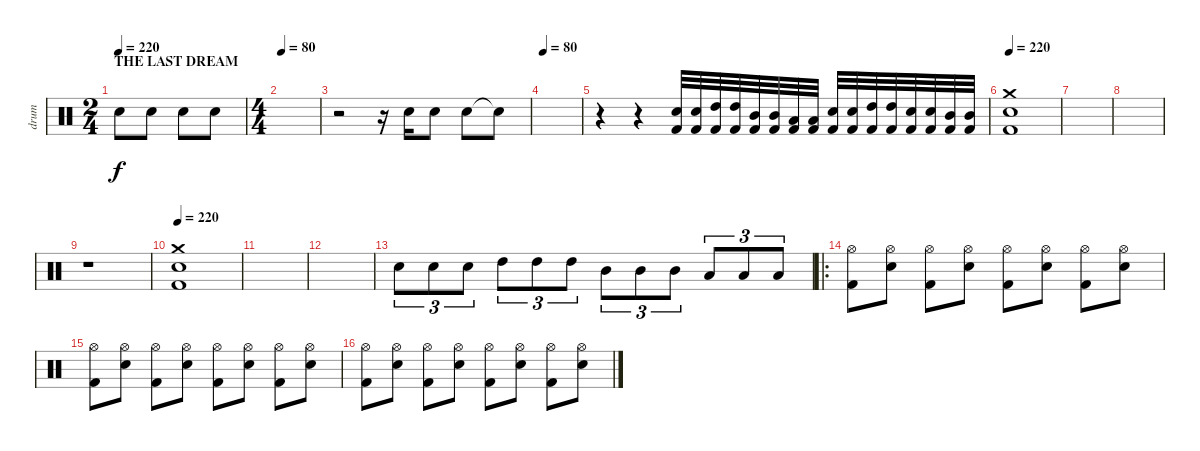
\track ("drum" "drum") {instrument percussion}
\staff {score}
\articulation defaults
\ts (2 4)
\section ("" "THE LAST DREAM")
\tempo 220
\tempo 80
\tempo 220
\clef neutral
\ks c "Electric Snare (hit)".8{dy f} "Electric Snare (hit)".8 "Electric Snare (hit)".8 "Electric Snare (hit)".8
|
\ts (4 4)
\tempo 80
|
r.2 r.16 "Electric Snare (hit)".16 "Electric Snare (hit)".8 "Electric Snare (hit)".8 "Snare (hit)"{t}.8 |
\tempo 80
|
r.4 r.4 ("Electric Snare (hit)" "Kick (hit) 2").32 ("Electric Snare (hit)" "Kick (hit) 2").32 ("High Tom (hit)" "Kick (hit) 2").32 ("High Tom (hit)" "Kick (hit) 2").32 ("Mid Tom (hit)" "Kick (hit) 2").32 ("Mid Tom (hit)" "Kick (hit) 2").32 ("Low Tom (hit)" "Kick (hit) 2").32 ("Low Tom (hit)" "Kick (hit) 2").32 ("Electric Snare (hit)" "Kick (hit) 2").32 ("Electric Snare (hit)" "Kick (hit) 2").32 ("High Tom (hit)" "Kick (hit) 2").32 ("High Tom (hit)" "Kick (hit) 2").32 ("Electric Snare (hit)" "Kick (hit) 2").32 ("Electric Snare (hit)" "Kick (hit) 2").32 ("Mid Tom (hit)" "Kick (hit) 2").32 ("Mid Tom (hit)" "Kick (hit) 2").32 |
\tempo 220
("Crash medium (hit)" "Electric Snare (hit)" "Kick (hit) 2").1 |
|
|
r.1 |
\tempo 220
("Crash medium (hit)" "Electric Snare (hit)" "Kick (hit) 2").1 |
|
|
"Electric Snare (hit)".8{tu (3 2)} "Electric Snare (hit)".8{tu (3 2)} "Electric Snare (hit)".8{tu (3 2)} "High Tom (hit)".8{tu (3 2)} "High Tom (hit)".8{tu (3 2)} "High Tom (hit)".8{tu (3 2)} "Mid Tom (hit)".8{tu (3 2)} "Mid Tom (hit)".8{tu (3 2)} "Mid Tom (hit)".8{tu (3 2)} "Low Tom (hit)".8{tu (3 2)} "Low Tom (hit)".8{tu (3 2)} "Low Tom (hit)".8{tu (3 2)} |
\ro
("Hi-Hat (open)" "Kick (hit) 2").8 ("Hi-Hat (open)" "Electric Snare (hit)").8 ("Hi-Hat (open)" "Kick (hit) 2").8 ("Hi-Hat (open)" "Electric Snare (hit)").8 ("Hi-Hat (open)" "Kick (hit) 2").8 ("Hi-Hat (open)" "Electric Snare (hit)").8 ("Hi-Hat (open)" "Kick (hit) 2").8 ("Hi-Hat (open)" "Electric Snare (hit)").8 |
("Hi-Hat (open)" "Kick (hit) 2").8 ("Hi-Hat (open)" "Electric Snare (hit)").8 ("Hi-Hat (open)" "Kick (hit) 2").8 ("Hi-Hat (open)" "Electric Snare (hit)").8 ("Hi-Hat (open)" "Kick (hit) 2").8 ("Hi-Hat (open)" "Electric Snare (hit)").8 ("Hi-Hat (open)" "Kick (hit) 2").8 ("Hi-Hat (open)" "Electric Snare (hit)").8 |
("Hi-Hat (open)" "Kick (hit) 2").8 ("Hi-Hat (open)" "Electric Snare (hit)").8 ("Hi-Hat (open)" "Kick (hit) 2").8 ("Hi-Hat (open)" "Electric Snare (hit)").8 ("Hi-Hat (open)" "Kick (hit) 2").8 ("Hi-Hat (open)" "Electric Snare (hit)").8 ("Hi-Hat (open)" "Kick (hit) 2").8 ("Hi-Hat (open)" "Electric Snare (hit)").8
